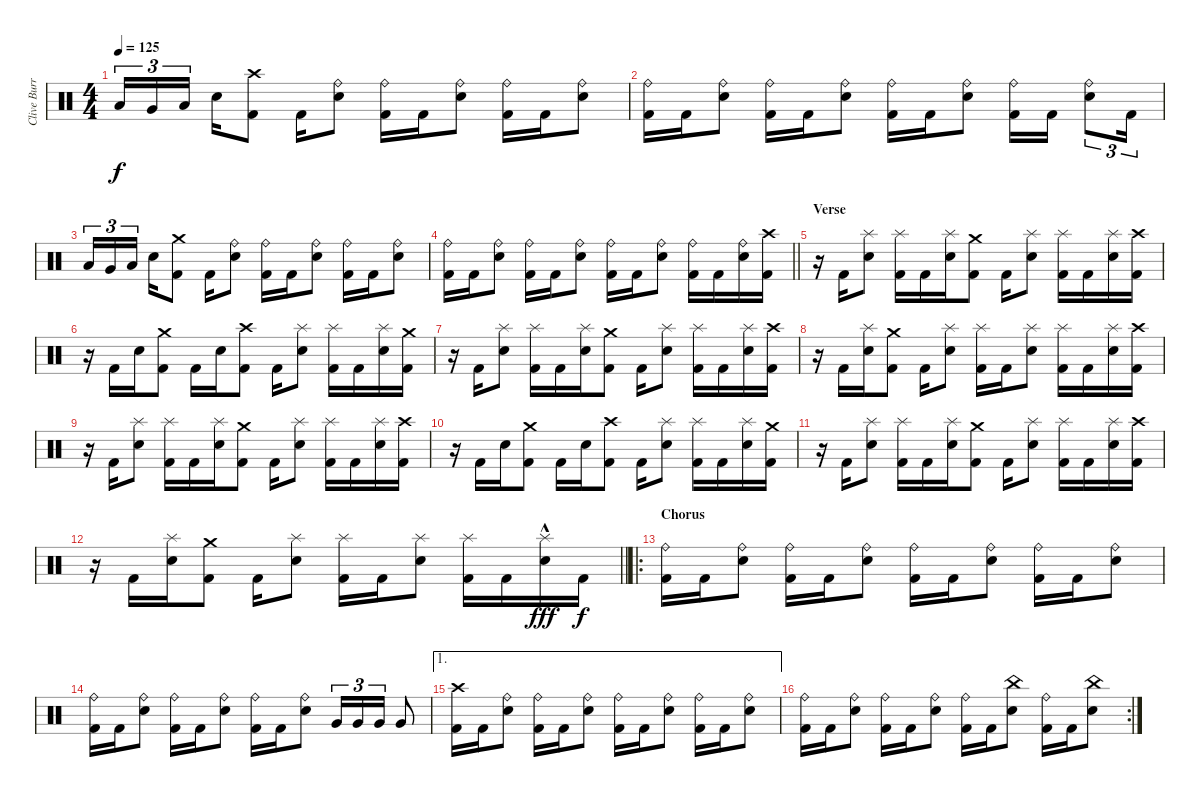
\track ("Clive Burr" "Clive Burr") {instrument percussion}
\staff {score}
\articulation defaults
\ts (4 4)
\tempo 125
\clef neutral
\ks c "Low Tom (hit)".16{tu (3 2) dy f} "Very Low Tom (hit)".16{tu (3 2)} "Low Floor Tom (hit)".16{tu (3 2) beam splitsecondary} "Snare (hit) 2".16
("Crash high (hit)" "Kick (hit) 2").8 "Kick (hit) 2".16 ("Ride (bell)" "Snare (hit) 2").8 ("Ride (bell)" "Kick (hit) 2").16 "Kick (hit) 2".16 ("Ride (bell)" "Snare (hit) 2").8 ("Ride (bell)" "Kick (hit) 2").16 "Kick (hit) 2".16 ("Ride (bell)" "Snare (hit) 2").8 |
("Ride (bell)" "Kick (hit) 2").16 "Kick (hit) 2".16 ("Ride (bell)" "Snare (hit) 2").8 ("Ride (bell)" "Kick (hit) 2").16 "Kick (hit) 2".16 ("Ride (bell)" "Snare (hit) 2").8 ("Ride (bell)" "Kick (hit) 2").16 "Kick (hit) 2".16 ("Ride (bell)" "Snare (hit) 2").8 ("Ride (bell)" "Kick (hit) 2").16 "Kick (hit) 2".16 ("Ride (bell)" "Snare (hit) 2").8{tu (3 2)} "Kick (hit) 2".16{tu (3 2)} |
"Low Tom (hit)".16{tu (3 2)} "Very Low Tom (hit)".16{tu (3 2)} "Low Floor Tom (hit)".16{tu (3 2) beam splitsecondary} "Snare (hit) 2".16 ("Crash medium (hit)" "Kick (hit) 2").8 "Kick (hit) 2".16 ("Ride (bell)" "Snare (hit) 2").8 ("Ride (bell)" "Kick (hit) 2").16 "Kick (hit) 2".16 ("Ride (bell)" "Snare (hit) 2").8 ("Ride (bell)" "Kick (hit) 2").16 "Kick (hit) 2".16 ("Ride (bell)" "Snare (hit) 2").8 |
\barLineRight lightlight
("Ride (bell)" "Kick (hit) 2").16 "Kick (hit) 2".16 ("Ride (bell)" "Snare (hit) 2").8 ("Ride (bell)" "Kick (hit) 2").16 "Kick (hit) 2".16 ("Ride (bell)" "Snare (hit) 2").8 ("Ride (bell)" "Kick (hit) 2").16 "Kick (hit) 2".16 ("Ride (bell)" "Snare (hit) 2").8 ("Ride (bell)" "Kick (hit) 2").16 "Kick (hit) 2".16 ("Ride (bell)" "Snare (hit) 2").16 ("Crash high (hit)" "Kick (hit) 2").16 |
\section ("" "Verse")
r.16 "Kick (hit) 2".16 ("Splash (hit)" "Snare (hit) 2").8 ("Splash (hit)" "Kick (hit) 2").16 "Kick (hit) 2".16 ("Splash (hit)" "Snare (hit) 2").16 ("Crash medium (hit)" "Kick (hit) 2").8 "Kick (hit) 2".16 ("Splash (hit)" "Snare (hit) 2").8 ("Splash (hit)" "Kick (hit) 2").16 "Kick (hit) 2".16 ("Splash (hit)" "Snare (hit) 2").16 ("Crash high (hit)" "Kick (hit) 2").16 |
r.16 "Kick (hit) 2".16 "Snare (hit) 2".16 ("Crash medium (hit)" "Kick (hit) 2").8 "Kick (hit) 2".16 "Snare (hit) 2".16 ("Crash high (hit)" "Kick (hit) 2").8 "Kick (hit) 2".16 ("Splash (hit)" "Snare (hit) 2").8 ("Splash (hit)" "Kick (hit) 2").16 "Kick (hit) 2".16 ("Splash (hit)" "Snare (hit) 2").16 ("Crash medium (hit)" "Kick (hit) 2").16 |
r.16 "Kick (hit) 2".16 ("Splash (hit)" "Snare (hit) 2").8 ("Splash (hit)" "Kick (hit) 2").16 "Kick (hit) 2".16 ("Splash (hit)" "Snare (hit) 2").16 ("Crash medium (hit)" "Kick (hit) 2").8 "Kick (hit) 2".16 ("Splash (hit)" "Snare (hit) 2").8 ("Splash (hit)" "Kick (hit) 2").16 "Kick (hit) 2".16 ("Splash (hit)" "Snare (hit) 2").16 ("Crash high (hit)" "Kick (hit) 2").16 |
r.16 "Kick (hit) 2".16 ("Splash (hit)" "Snare (hit) 2").16 ("Crash medium (hit)" "Kick (hit) 2").8 "Kick (hit) 2".16 ("Splash (hit)" "Snare (hit) 2").8 ("Splash (hit)" "Kick (hit) 2").16 "Kick (hit) 2".16 ("Splash (hit)" "Snare (hit) 2").8 ("Splash (hit)" "Kick (hit) 2").16 "Kick (hit) 2".16 ("Splash (hit)" "Snare (hit) 2").16 ("Crash high (hit)" "Kick (hit) 2").16 |
r.16 "Kick (hit) 2".16 ("Splash (hit)" "Snare (hit) 2").8 ("Splash (hit)" "Kick (hit) 2").16 "Kick (hit) 2".16 ("Splash (hit)" "Snare (hit) 2").16 ("Crash medium (hit)" "Kick (hit) 2").8 "Kick (hit) 2".16 ("Splash (hit)" "Snare (hit) 2").8 ("Splash (hit)" "Kick (hit) 2").16 "Kick (hit) 2".16 ("Splash (hit)" "Snare (hit) 2").16 ("Crash high (hit)" "Kick (hit) 2").16 |
r.16 "Kick (hit) 2".16 "Snare (hit) 2".16 ("Crash medium (hit)" "Kick (hit) 2").8 "Kick (hit) 2".16 "Snare (hit) 2".16 ("Crash high (hit)" "Kick (hit) 2").8 "Kick (hit) 2".16 ("Splash (hit)" "Snare (hit) 2").8 ("Splash (hit)" "Kick (hit) 2").16 "Kick (hit) 2".16 ("Splash (hit)" "Snare (hit) 2").16 ("Crash medium (hit)" "Kick (hit) 2").16 |
r.16 "Kick (hit) 2".16 ("Splash (hit)" "Snare (hit) 2").8 ("Splash (hit)" "Kick (hit) 2").16 "Kick (hit) 2".16 ("Splash (hit)" "Snare (hit) 2").16 ("Crash medium (hit)" "Kick (hit) 2").8 "Kick (hit) 2".16 ("Splash (hit)" "Snare (hit) 2").8 ("Splash (hit)" "Kick (hit) 2").16 "Kick (hit) 2".16 ("Splash (hit)" "Snare (hit) 2").16 ("Crash high (hit)" "Kick (hit) 2").16 |
\barLineRight lightlight
r.16 "Kick (hit) 2".16 ("Splash (hit)" "Snare (hit) 2").16 ("Crash medium (hit)" "Kick (hit) 2").8 "Kick (hit) 2".16 ("Splash (hit)" "Snare (hit) 2").8 ("Splash (hit)" "Kick (hit) 2").16 "Kick (hit) 2".16 ("Splash (hit)" "Snare (hit) 2").8 ("Splash (hit)" "Kick (hit) 2").16 "Kick (hit) 2".16 ("Splash (hit)"{hac} "Snare (hit) 2").16{dy fff} "Kick (hit) 2".16{dy f} |
\ro
\section ("" "Chorus")
("Ride (bell)" "Kick (hit) 2").16 "Kick (hit) 2".16 ("Ride (bell)" "Snare (hit) 2").8 ("Ride (bell)" "Kick (hit) 2").16 "Kick (hit) 2".16 ("Ride (bell)" "Snare (hit) 2").8 ("Ride (bell)" "Kick (hit) 2").16 "Kick (hit) 2".16 ("Ride (bell)" "Snare (hit) 2").8 ("Ride (bell)" "Kick (hit) 2").16 "Kick (hit) 2".16 ("Ride (bell)" "Snare (hit) 2").8 |
("Ride (bell)" "Kick (hit) 2").16 "Kick (hit) 2".16 ("Ride (bell)" "Snare (hit) 2").8 ("Ride (bell)" "Kick (hit) 2").16 "Kick (hit) 2".16 ("Ride (bell)" "Snare (hit) 2").8 ("Ride (bell)" "Kick (hit) 2").16 "Kick (hit) 2".16 ("Ride (bell)" "Snare (hit) 2").8 "Very Low Tom (hit)".16{tu (3 2)} "Very Low Tom (hit)".16{tu (3 2)} "Very Low Tom (hit)".16{tu (3 2)} "Very Low Tom (hit)".8 |
\ae 1
("Crash high (hit)" "Kick (hit) 2").16 "Kick (hit) 2".16 ("Ride (bell)" "Snare (hit) 2").8 ("Ride (bell)" "Kick (hit) 2").16 "Kick (hit) 2".16 ("Ride (bell)" "Snare (hit) 2").8 ("Ride (bell)" "Kick (hit) 2").16 "Kick (hit) 2".16 ("Ride (bell)" "Snare (hit) 2").8 ("Ride (bell)" "Kick (hit) 2").16 "Kick (hit) 2".16 ("Ride (bell)" "Snare (hit) 2").8 |
\rc 2
("Ride (bell)" "Kick (hit) 2").16 "Kick (hit) 2".16 ("Ride (bell)" "Snare (hit) 2").8 ("Ride (bell)" "Kick (hit) 2").16 "Kick (hit) 2".16 ("Ride (bell)" "Snare (hit) 2").8 ("Ride (bell)" "Kick (hit) 2").16 "Kick (hit) 2".16 ("China (hit)" "Snare (hit) 2").8 ("Ride (bell)" "Kick (hit) 2").16 "Kick (hit) 2".16 ("China (hit)" "Snare (hit) 2").8
